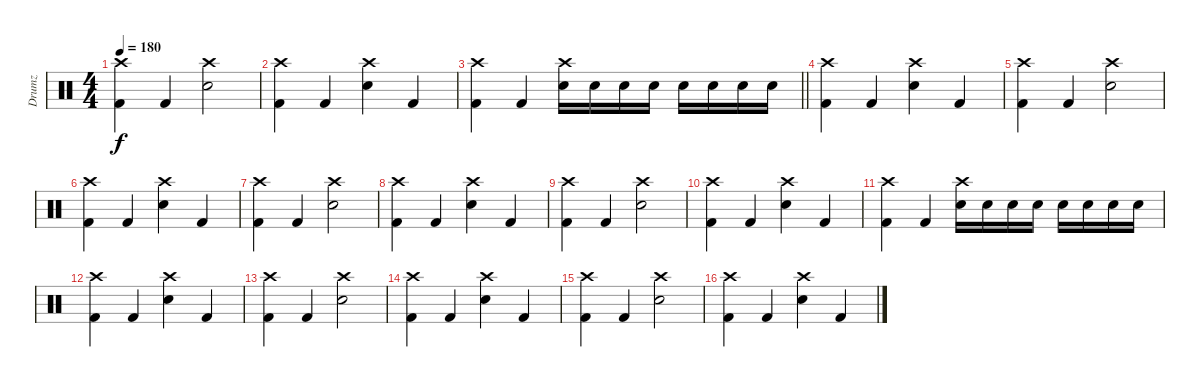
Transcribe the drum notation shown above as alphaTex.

\track ("Drumz" "Drumz") {instrument percussion}
\staff {score}
\articulation defaults
\ts (4 4)
\tempo 180
\clef neutral
\ks c
("Crash high (hit)" "Kick (hit) 2").4{dy f} "Kick (hit) 2".4 ("Crash high (hit)" "Snare (hit) 2").2 |
("Kick (hit) 2" "Crash high (hit)").4 "Kick (hit) 2".4 ("Snare (hit) 2" "Crash high (hit)").4 "Kick (hit) 2".4 |
\barLineRight lightlight
("Crash high (hit)" "Kick (hit) 2").4 "Kick (hit) 2".4 ("Crash high (hit)" "Electric Snare (hit)").16 "Electric Snare (hit)".16 "Electric Snare (hit)".16 "Electric Snare (hit)".16 "Electric Snare (hit)".16 "Electric Snare (hit)".16 "Electric Snare (hit)".16 "Electric Snare (hit)".16 |
("Kick (hit) 2" "Crash high (hit)").4 "Kick (hit) 2".4 ("Snare (hit) 2" "Crash high (hit)").4 "Kick (hit) 2".4 |
("Crash high (hit)" "Kick (hit) 2").4 "Kick (hit) 2".4 ("Crash high (hit)" "Snare (hit) 2").2 |
("Kick (hit) 2" "Crash high (hit)").4 "Kick (hit) 2".4 ("Snare (hit) 2" "Crash high (hit)").4 "Kick (hit) 2".4 |
("Crash high (hit)" "Kick (hit) 2").4 "Kick (hit) 2".4 ("Crash high (hit)" "Snare (hit) 2").2 |
("Kick (hit) 2" "Crash high (hit)").4 "Kick (hit) 2".4 ("Snare (hit) 2" "Crash high (hit)").4 "Kick (hit) 2".4 |
("Crash high (hit)" "Kick (hit) 2").4 "Kick (hit) 2".4 ("Crash high (hit)" "Snare (hit) 2").2 |
("Kick (hit) 2" "Crash high (hit)").4 "Kick (hit) 2".4 ("Snare (hit) 2" "Crash high (hit)").4 "Kick (hit) 2".4 |
("Crash high (hit)" "Kick (hit) 2").4 "Kick (hit) 2".4 ("Crash high (hit)" "Electric Snare (hit)").16 "Electric Snare (hit)".16 "Electric Snare (hit)".16 "Electric Snare (hit)".16 "Electric Snare (hit)".16 "Electric Snare (hit)".16 "Electric Snare (hit)".16 "Electric Snare (hit)".16 |
("Kick (hit) 2" "Crash high (hit)").4 "Kick (hit) 2".4 ("Snare (hit) 2" "Crash high (hit)").4 "Kick (hit) 2".4 |
("Crash high (hit)" "Kick (hit) 2").4 "Kick (hit) 2".4 ("Crash high (hit)" "Snare (hit) 2").2 |
("Kick (hit) 2" "Crash high (hit)").4 "Kick (hit) 2".4 ("Snare (hit) 2" "Crash high (hit)").4 "Kick (hit) 2".4 |
("Crash high (hit)" "Kick (hit) 2").4 "Kick (hit) 2".4 ("Crash high (hit)" "Snare (hit) 2").2 |
("Kick (hit) 2" "Crash high (hit)").4 "Kick (hit) 2".4 ("Snare (hit) 2" "Crash high (hit)").4 "Kick (hit) 2".4
